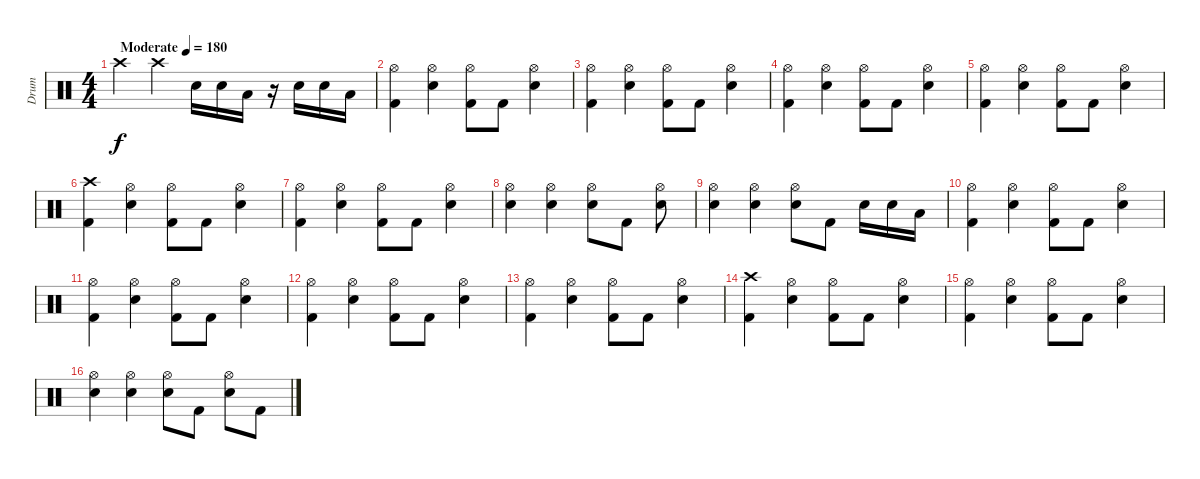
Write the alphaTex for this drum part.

\track ("Drum" "Drum") {instrument percussion}
\staff {score}
\articulation defaults
\ts (4 4)
\tempo (180 "Moderate")
\clef neutral
\ks c "Crash high (hit)".4{dy f} "Crash high (hit)".4 "Electric Snare (hit)".16 "Electric Snare (hit)".16 "Low Tom (hit)".16
r.16 "Electric Snare (hit)".16 "Electric Snare (hit)".16 "Low Tom (hit)".16 |
("Hi-Hat (open)" "Kick (hit) 2").4 ("Hi-Hat (open)" "Electric Snare (hit)").4 ("Hi-Hat (open)" "Kick (hit) 2").8 "Kick (hit) 2".8 ("Hi-Hat (open)" "Electric Snare (hit)").4 |
("Hi-Hat (open)" "Kick (hit) 2").4 ("Hi-Hat (open)" "Electric Snare (hit)").4 ("Hi-Hat (open)" "Kick (hit) 2").8 "Kick (hit) 2".8 ("Hi-Hat (open)" "Electric Snare (hit)").4 |
("Hi-Hat (open)" "Kick (hit) 2").4 ("Hi-Hat (open)" "Electric Snare (hit)").4 ("Hi-Hat (open)" "Kick (hit) 2").8 "Kick (hit) 2".8 ("Hi-Hat (open)" "Electric Snare (hit)").4 |
("Hi-Hat (open)" "Kick (hit) 2").4 ("Hi-Hat (open)" "Electric Snare (hit)").4 ("Hi-Hat (open)" "Kick (hit) 2").8 "Kick (hit) 2".8 ("Hi-Hat (open)" "Electric Snare (hit)").4 |
("Crash high (hit)" "Kick (hit) 2").4 ("Hi-Hat (open)" "Electric Snare (hit)").4 ("Hi-Hat (open)" "Kick (hit) 2").8 "Kick (hit) 2".8 ("Hi-Hat (open)" "Electric Snare (hit)").4 |
("Hi-Hat (open)" "Kick (hit) 2").4 ("Hi-Hat (open)" "Electric Snare (hit)").4 ("Hi-Hat (open)" "Kick (hit) 2").8 "Kick (hit) 2".8 ("Hi-Hat (open)" "Electric Snare (hit)").4 |
("Hi-Hat (open)" "Electric Snare (hit)").4 ("Hi-Hat (open)" "Electric Snare (hit)").4 ("Hi-Hat (open)" "Electric Snare (hit)").8 "Kick (hit) 2".8 ("Hi-Hat (open)" "Electric Snare (hit)").8 |
("Hi-Hat (open)" "Electric Snare (hit)").4 ("Hi-Hat (open)" "Electric Snare (hit)").4 ("Hi-Hat (open)" "Electric Snare (hit)").8 "Kick (hit) 2".8 "Electric Snare (hit)".16 "Electric Snare (hit)".16 "Low Tom (hit)".16 |
("Hi-Hat (open)" "Kick (hit) 2").4 ("Hi-Hat (open)" "Electric Snare (hit)").4 ("Hi-Hat (open)" "Kick (hit) 2").8 "Kick (hit) 2".8 ("Hi-Hat (open)" "Electric Snare (hit)").4 |
("Hi-Hat (open)" "Kick (hit) 2").4 ("Hi-Hat (open)" "Electric Snare (hit)").4 ("Hi-Hat (open)" "Kick (hit) 2").8 "Kick (hit) 2".8 ("Hi-Hat (open)" "Electric Snare (hit)").4 |
("Hi-Hat (open)" "Kick (hit) 2").4 ("Hi-Hat (open)" "Electric Snare (hit)").4 ("Hi-Hat (open)" "Kick (hit) 2").8 "Kick (hit) 2".8 ("Hi-Hat (open)" "Electric Snare (hit)").4 |
("Hi-Hat (open)" "Kick (hit) 2").4 ("Hi-Hat (open)" "Electric Snare (hit)").4 ("Hi-Hat (open)" "Kick (hit) 2").8 "Kick (hit) 2".8 ("Hi-Hat (open)" "Electric Snare (hit)").4 |
("Crash high (hit)" "Kick (hit) 2").4 ("Hi-Hat (open)" "Electric Snare (hit)").4 ("Hi-Hat (open)" "Kick (hit) 2").8 "Kick (hit) 2".8 ("Hi-Hat (open)" "Electric Snare (hit)").4 |
("Hi-Hat (open)" "Kick (hit) 2").4 ("Hi-Hat (open)" "Electric Snare (hit)").4 ("Hi-Hat (open)" "Kick (hit) 2").8 "Kick (hit) 2".8 ("Hi-Hat (open)" "Electric Snare (hit)").4 |
("Hi-Hat (open)" "Electric Snare (hit)").4 ("Hi-Hat (open)" "Electric Snare (hit)").4 ("Hi-Hat (open)" "Electric Snare (hit)").8 "Kick (hit) 2".8 ("Hi-Hat (open)" "Electric Snare (hit)").8 "Kick (hit) 2".8
